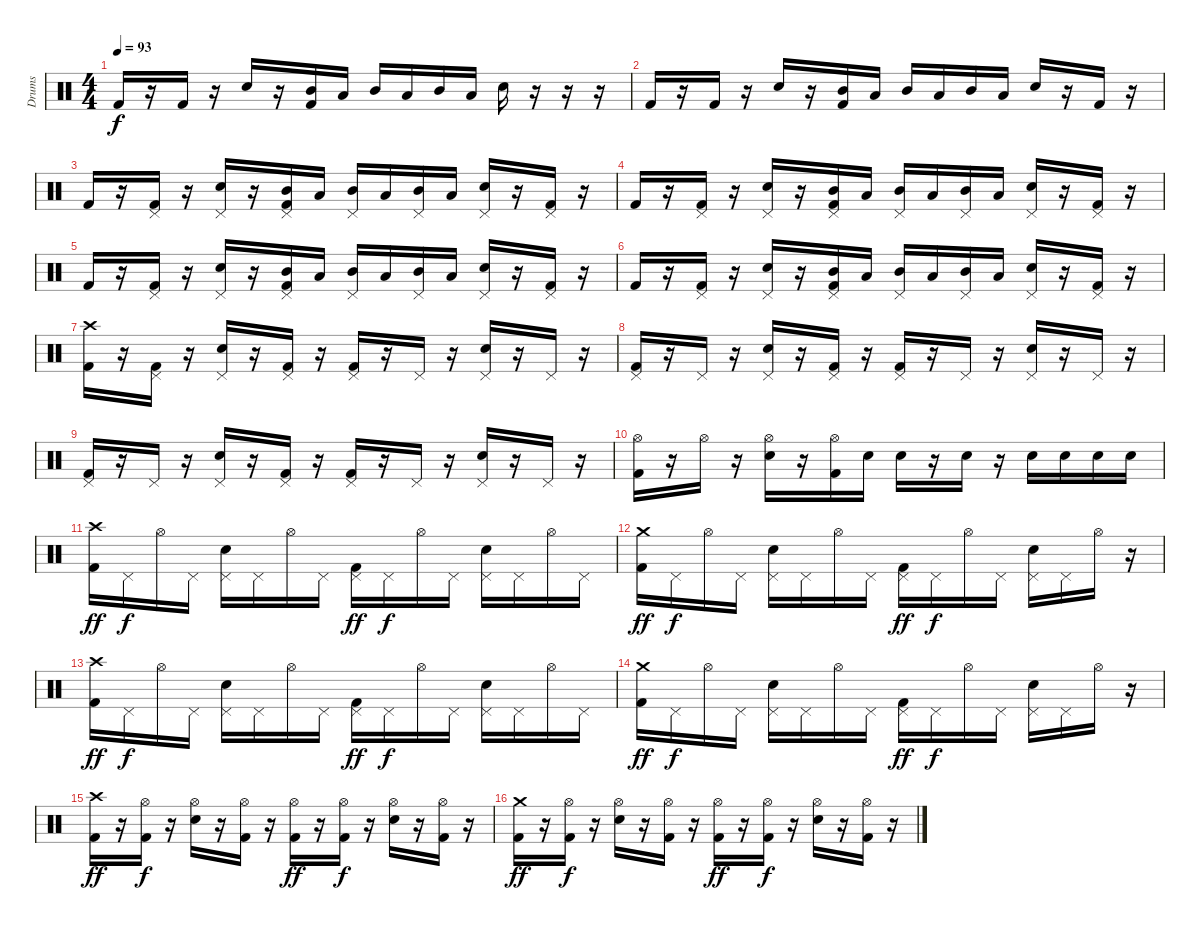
\track ("Drums" "Drums") {instrument percussion}
\staff {score}
\articulation defaults
\ts (4 4)
\tempo 93
\clef neutral
\ks c "Kick (hit) 2".16{dy f}
r.16 "Kick (hit) 2".16 r.16 "Electric Snare (hit)".16 r.16 ("Mid Tom (hit)" "Kick (hit) 2").16 "Low Tom (hit)".16 "Mid Tom (hit)".16 "Low Tom (hit)".16 "Mid Tom (hit)".16 "Low Tom (hit)".16 "Electric Snare (hit)".16 r.16 r.16 r.16 |
"Kick (hit) 2".16 r.16 "Kick (hit) 2".16 r.16 "Electric Snare (hit)".16 r.16 ("Mid Tom (hit)" "Kick (hit) 2").16 "Low Tom (hit)".16 "Mid Tom (hit)".16 "Low Tom (hit)".16 "Mid Tom (hit)".16 "Low Tom (hit)".16 "Electric Snare (hit)".16 r.16 "Kick (hit) 2".16 r.16 |
"Kick (hit) 2".16 r.16 ("Pedal Hi-Hat (hit)" "Kick (hit) 2").16 r.16 ("Pedal Hi-Hat (hit)" "Electric Snare (hit)").16 r.16 ("Pedal Hi-Hat (hit)" "Mid Tom (hit)" "Kick (hit) 2").16 "Low Tom (hit)".16 ("Pedal Hi-Hat (hit)" "Mid Tom (hit)").16 "Low Tom (hit)".16 ("Pedal Hi-Hat (hit)" "Mid Tom (hit)").16 "Low Tom (hit)".16 ("Pedal Hi-Hat (hit)" "Electric Snare (hit)").16 r.16 ("Pedal Hi-Hat (hit)" "Kick (hit) 2").16 r.16 |
"Kick (hit) 2".16 r.16 ("Pedal Hi-Hat (hit)" "Kick (hit) 2").16 r.16 ("Pedal Hi-Hat (hit)" "Electric Snare (hit)").16 r.16 ("Pedal Hi-Hat (hit)" "Mid Tom (hit)" "Kick (hit) 2").16 "Low Tom (hit)".16 ("Pedal Hi-Hat (hit)" "Mid Tom (hit)").16 "Low Tom (hit)".16 ("Pedal Hi-Hat (hit)" "Mid Tom (hit)").16 "Low Tom (hit)".16 ("Pedal Hi-Hat (hit)" "Electric Snare (hit)").16 r.16 ("Pedal Hi-Hat (hit)" "Kick (hit) 2").16 r.16 |
"Kick (hit) 2".16 r.16 ("Pedal Hi-Hat (hit)" "Kick (hit) 2").16 r.16 ("Pedal Hi-Hat (hit)" "Electric Snare (hit)").16 r.16 ("Pedal Hi-Hat (hit)" "Mid Tom (hit)" "Kick (hit) 2").16 "Low Tom (hit)".16 ("Pedal Hi-Hat (hit)" "Mid Tom (hit)").16 "Low Tom (hit)".16 ("Pedal Hi-Hat (hit)" "Mid Tom (hit)").16 "Low Tom (hit)".16 ("Pedal Hi-Hat (hit)" "Electric Snare (hit)").16 r.16 ("Pedal Hi-Hat (hit)" "Kick (hit) 2").16 r.16 |
"Kick (hit) 2".16 r.16 ("Pedal Hi-Hat (hit)" "Kick (hit) 2").16 r.16 ("Pedal Hi-Hat (hit)" "Electric Snare (hit)").16 r.16 ("Pedal Hi-Hat (hit)" "Mid Tom (hit)" "Kick (hit) 2").16 "Low Tom (hit)".16 ("Pedal Hi-Hat (hit)" "Mid Tom (hit)").16 "Low Tom (hit)".16 ("Pedal Hi-Hat (hit)" "Mid Tom (hit)").16 "Low Tom (hit)".16 ("Pedal Hi-Hat (hit)" "Electric Snare (hit)").16 r.16 ("Pedal Hi-Hat (hit)" "Kick (hit) 2").16 r.16 |
("Crash high (hit)" "Kick (hit) 2").16 r.16 ("Pedal Hi-Hat (hit)" "Kick (hit) 2").16 r.16 ("Pedal Hi-Hat (hit)" "Electric Snare (hit)").16 r.16 ("Pedal Hi-Hat (hit)" "Kick (hit) 2").16 r.16 ("Pedal Hi-Hat (hit)" "Kick (hit) 2").16 r.16 "Pedal Hi-Hat (hit)".16 r.16 ("Pedal Hi-Hat (hit)" "Electric Snare (hit)").16 r.16 "Pedal Hi-Hat (hit)".16 r.16 |
("Pedal Hi-Hat (hit)" "Kick (hit) 2").16 r.16 "Pedal Hi-Hat (hit)".16 r.16 ("Pedal Hi-Hat (hit)" "Electric Snare (hit)").16 r.16 ("Pedal Hi-Hat (hit)" "Kick (hit) 2").16 r.16 ("Pedal Hi-Hat (hit)" "Kick (hit) 2").16 r.16 "Pedal Hi-Hat (hit)".16 r.16 ("Pedal Hi-Hat (hit)" "Electric Snare (hit)").16 r.16 "Pedal Hi-Hat (hit)".16 r.16 |
("Pedal Hi-Hat (hit)" "Kick (hit) 2").16 r.16 "Pedal Hi-Hat (hit)".16 r.16 ("Pedal Hi-Hat (hit)" "Electric Snare (hit)").16 r.16 ("Pedal Hi-Hat (hit)" "Kick (hit) 2").16 r.16 ("Pedal Hi-Hat (hit)" "Kick (hit) 2").16 r.16 "Pedal Hi-Hat (hit)".16 r.16 ("Pedal Hi-Hat (hit)" "Electric Snare (hit)").16 r.16 "Pedal Hi-Hat (hit)".16 r.16 |
("Hi-Hat (open)" "Kick (hit) 2").16 r.16 "Hi-Hat (open)".16 r.16 ("Hi-Hat (open)" "Electric Snare (hit)").16 r.16 ("Hi-Hat (open)" "Kick (hit) 2").16 "Electric Snare (hit)".16 "Electric Snare (hit)".16 r.16 "Electric Snare (hit)".16 r.16 "Electric Snare (hit)".16 "Electric Snare (hit)".16 "Electric Snare (hit)".16 "Electric Snare (hit)".16 |
("Crash high (hit)" "Kick (hit) 2").16{dy ff} "Pedal Hi-Hat (hit)".16{dy f} "Hi-Hat (open)".16 "Pedal Hi-Hat (hit)".16 ("Pedal Hi-Hat (hit)" "Electric Snare (hit)").16 "Pedal Hi-Hat (hit)".16 "Hi-Hat (open)".16 "Pedal Hi-Hat (hit)".16 ("Pedal Hi-Hat (hit)" "Kick (hit) 2").16{dy ff} "Pedal Hi-Hat (hit)".16{dy f} "Hi-Hat (open)".16 "Pedal Hi-Hat (hit)".16 ("Pedal Hi-Hat (hit)" "Electric Snare (hit)").16 "Pedal Hi-Hat (hit)".16 "Hi-Hat (open)".16 "Pedal Hi-Hat (hit)".16 |
("Crash medium (hit)" "Kick (hit) 2").16{dy ff} "Pedal Hi-Hat (hit)".16{dy f} "Hi-Hat (open)".16 "Pedal Hi-Hat (hit)".16 ("Pedal Hi-Hat (hit)" "Electric Snare (hit)").16 "Pedal Hi-Hat (hit)".16 "Hi-Hat (open)".16 "Pedal Hi-Hat (hit)".16 ("Pedal Hi-Hat (hit)" "Kick (hit) 2").16{dy ff} "Pedal Hi-Hat (hit)".16{dy f} "Hi-Hat (open)".16 "Pedal Hi-Hat (hit)".16 ("Pedal Hi-Hat (hit)" "Electric Snare (hit)").16 "Pedal Hi-Hat (hit)".16 "Hi-Hat (open)".16 r.16 |
("Crash high (hit)" "Kick (hit) 2").16{dy ff} "Pedal Hi-Hat (hit)".16{dy f} "Hi-Hat (open)".16 "Pedal Hi-Hat (hit)".16 ("Pedal Hi-Hat (hit)" "Electric Snare (hit)").16 "Pedal Hi-Hat (hit)".16 "Hi-Hat (open)".16 "Pedal Hi-Hat (hit)".16 ("Pedal Hi-Hat (hit)" "Kick (hit) 2").16{dy ff} "Pedal Hi-Hat (hit)".16{dy f} "Hi-Hat (open)".16 "Pedal Hi-Hat (hit)".16 ("Pedal Hi-Hat (hit)" "Electric Snare (hit)").16 "Pedal Hi-Hat (hit)".16 "Hi-Hat (open)".16 "Pedal Hi-Hat (hit)".16 |
("Crash medium (hit)" "Kick (hit) 2").16{dy ff} "Pedal Hi-Hat (hit)".16{dy f} "Hi-Hat (open)".16 "Pedal Hi-Hat (hit)".16 ("Pedal Hi-Hat (hit)" "Electric Snare (hit)").16 "Pedal Hi-Hat (hit)".16 "Hi-Hat (open)".16 "Pedal Hi-Hat (hit)".16 ("Pedal Hi-Hat (hit)" "Kick (hit) 2").16{dy ff} "Pedal Hi-Hat (hit)".16{dy f} "Hi-Hat (open)".16 "Pedal Hi-Hat (hit)".16 ("Pedal Hi-Hat (hit)" "Electric Snare (hit)").16 "Pedal Hi-Hat (hit)".16 "Hi-Hat (open)".16 r.16 |
("Crash high (hit)" "Kick (hit) 2").16{dy ff} r.16 ("Hi-Hat (open)" "Kick (hit) 2").16{dy f} r.16 ("Hi-Hat (open)" "Electric Snare (hit)").16 r.16 ("Hi-Hat (open)" "Kick (hit) 2").16 r.16 ("Hi-Hat (open)" "Kick (hit) 2").16{dy ff} r.16 ("Hi-Hat (open)" "Kick (hit) 2").16{dy f} r.16 ("Hi-Hat (open)" "Electric Snare (hit)").16 r.16 ("Hi-Hat (open)" "Kick (hit) 2").16 r.16 |
("Crash medium (hit)" "Kick (hit) 2").16{dy ff} r.16 ("Hi-Hat (open)" "Kick (hit) 2").16{dy f} r.16 ("Hi-Hat (open)" "Electric Snare (hit)").16 r.16 ("Hi-Hat (open)" "Kick (hit) 2").16 r.16 ("Hi-Hat (open)" "Kick (hit) 2").16{dy ff} r.16 ("Hi-Hat (open)" "Kick (hit) 2").16{dy f} r.16 ("Hi-Hat (open)" "Electric Snare (hit)").16 r.16 ("Hi-Hat (open)" "Kick (hit) 2").16 r.16
